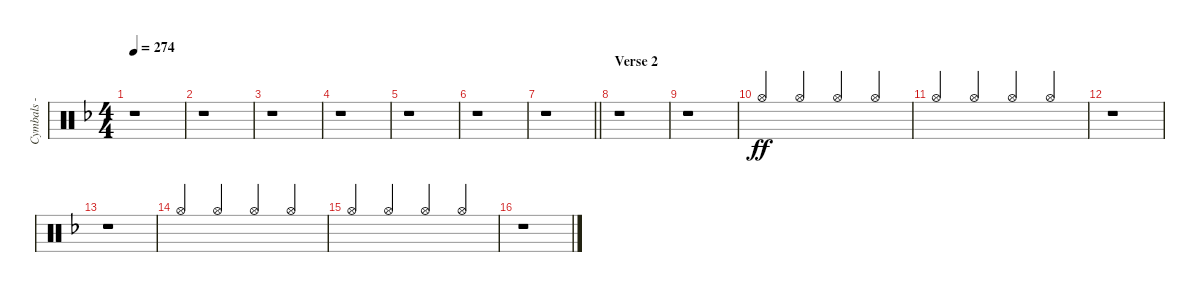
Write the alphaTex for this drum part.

\track ("Cymbals - hi-hat" "Cymbals - ") {instrument percussion}
\staff {score}
\articulation defaults
\ts (4 4)
\tempo 274
\clef neutral
\ks dminor
r.1{dy ff} |
r.1 |
r.1 |
r.1 |
r.1 |
r.1 |
\barLineRight lightlight
r.1 |
\section ("" "Verse 2")
r.1 |
r.1 |
"Hi-Hat (open)".4{beam Up} "Hi-Hat (open)".4{beam Up} "Hi-Hat (open)".4{beam Up} "Hi-Hat (open)".4{beam Up} |
"Hi-Hat (open)".4{beam Up} "Hi-Hat (open)".4{beam Up} "Hi-Hat (open)".4{beam Up} "Hi-Hat (open)".4{beam Up} |
r.1 |
r.1 |
"Hi-Hat (open)".4{beam Up} "Hi-Hat (open)".4{beam Up} "Hi-Hat (open)".4{beam Up} "Hi-Hat (open)".4{beam Up} |
"Hi-Hat (open)".4{beam Up} "Hi-Hat (open)".4{beam Up} "Hi-Hat (open)".4{beam Up} "Hi-Hat (open)".4{beam Up} |
r.1
